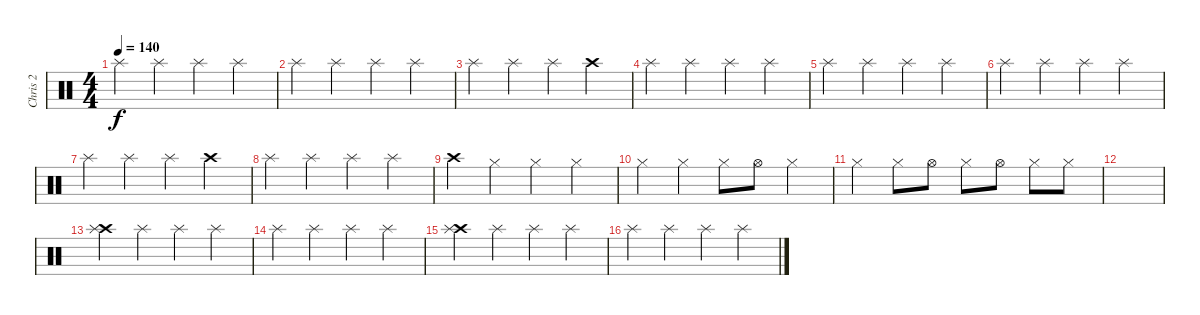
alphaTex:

\track ("Chris 2" "Chris 2") {instrument percussion}
\staff {score}
\articulation defaults
\ts (4 4)
\tempo 140
\clef neutral
\ks c "Splash (hit)".4{dy f} "Splash (hit)".4 "Splash (hit)".4 "Splash (hit)".4
|
"Splash (hit)".4 "Splash (hit)".4 "Splash (hit)".4 "Splash (hit)".4 |
"Splash (hit)".4 "Splash (hit)".4 "Splash (hit)".4 "Crash high (hit)".4 |
"Splash (hit)".4 "Splash (hit)".4 "Splash (hit)".4 "Splash (hit)".4 |
"Splash (hit)".4 "Splash (hit)".4 "Splash (hit)".4 "Splash (hit)".4 |
"Splash (hit)".4 "Splash (hit)".4 "Splash (hit)".4 "Splash (hit)".4 |
"Splash (hit)".4 "Splash (hit)".4 "Splash (hit)".4 "Crash high (hit)".4 |
"Splash (hit)".4 "Splash (hit)".4 "Splash (hit)".4 "Splash (hit)".4 |
"Crash high (hit)".4 "Hi-Hat (closed)".4 "Hi-Hat (closed)".4 "Hi-Hat (closed)".4 |
"Hi-Hat (closed)".4 "Hi-Hat (closed)".4 "Hi-Hat (closed)".8 "Hi-Hat (open)".8 "Hi-Hat (closed)".4 |
"Hi-Hat (closed)".4 "Hi-Hat (closed)".8 "Hi-Hat (open)".8 "Hi-Hat (closed)".8 "Hi-Hat (open)".8 "Hi-Hat (closed)".8 "Hi-Hat (closed)".8 |
|
("Crash high (hit)" "Splash (hit)").4 "Splash (hit)".4 "Splash (hit)".4 "Splash (hit)".4 |
"Splash (hit)".4 "Splash (hit)".4 "Splash (hit)".4 "Splash (hit)".4 |
("Crash high (hit)" "Splash (hit)").4 "Splash (hit)".4 "Splash (hit)".4 "Splash (hit)".4 |
"Splash (hit)".4 "Splash (hit)".4 "Splash (hit)".4 "Splash (hit)".4
